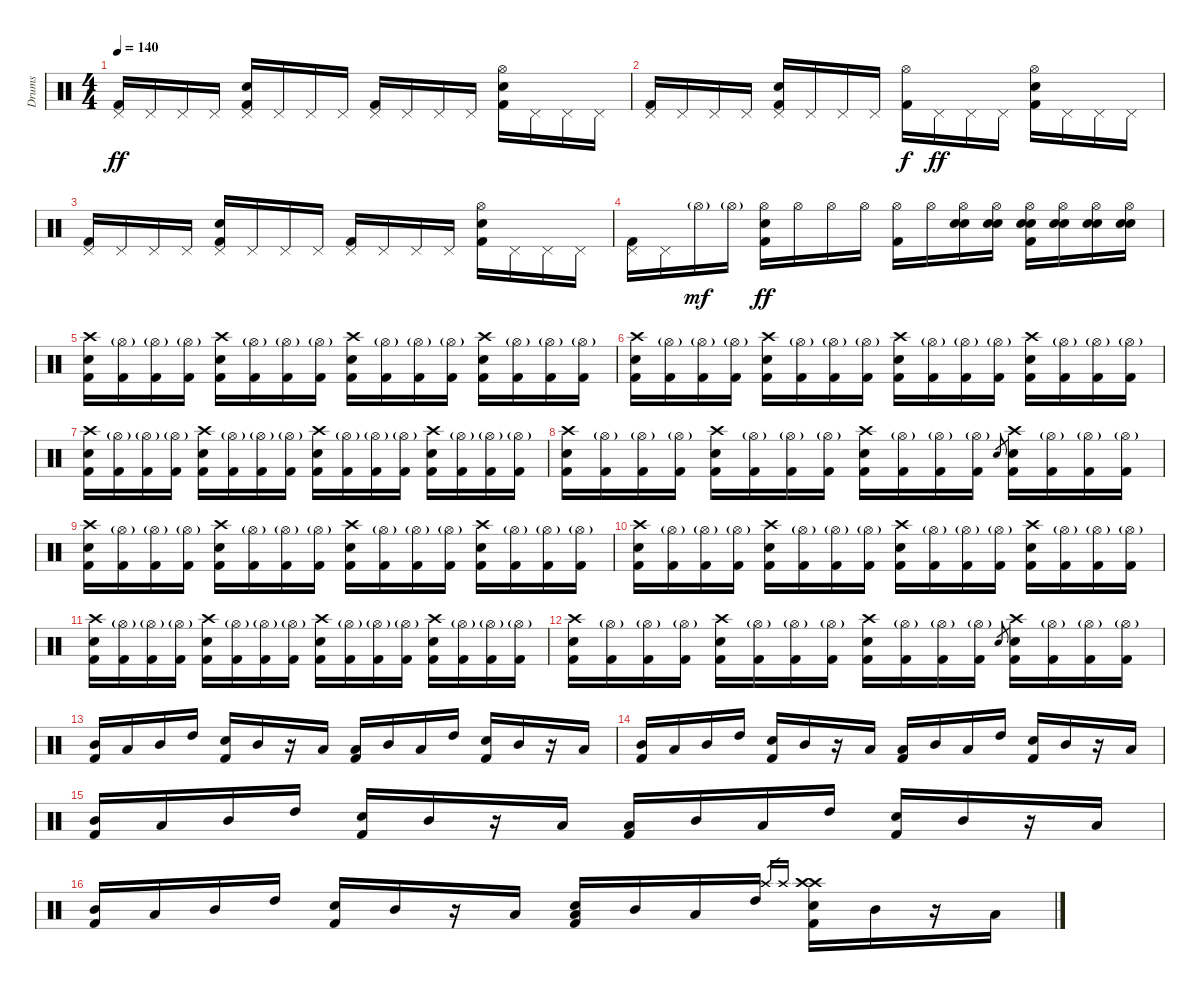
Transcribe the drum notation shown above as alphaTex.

\track ("Drums" "Drums") {instrument percussion}
\staff {score}
\articulation defaults
\ts (4 4)
\tempo 140
\clef neutral
\ks c
("Pedal Hi-Hat (hit)" "Kick (hit) 2").16{dy ff} "Pedal Hi-Hat (hit)".16 "Pedal Hi-Hat (hit)".16 "Pedal Hi-Hat (hit)".16 ("Pedal Hi-Hat (hit)" "Kick (hit) 2" "Electric Snare (hit)").16 "Pedal Hi-Hat (hit)".16 "Pedal Hi-Hat (hit)".16 "Pedal Hi-Hat (hit)".16 ("Pedal Hi-Hat (hit)" "Kick (hit) 2").16 "Pedal Hi-Hat (hit)".16 "Pedal Hi-Hat (hit)".16 "Pedal Hi-Hat (hit)".16 ("Hi-Hat (open)" "Kick (hit) 2" "Electric Snare (hit)").16 "Pedal Hi-Hat (hit)".16 "Pedal Hi-Hat (hit)".16 "Pedal Hi-Hat (hit)".16 |
("Pedal Hi-Hat (hit)" "Kick (hit) 2").16 "Pedal Hi-Hat (hit)".16 "Pedal Hi-Hat (hit)".16 "Pedal Hi-Hat (hit)".16 ("Pedal Hi-Hat (hit)" "Kick (hit) 2" "Electric Snare (hit)").16 "Pedal Hi-Hat (hit)".16 "Pedal Hi-Hat (hit)".16 "Pedal Hi-Hat (hit)".16 ("Hi-Hat (open)" "Kick (hit) 2").16{dy f} "Pedal Hi-Hat (hit)".16{dy ff} "Pedal Hi-Hat (hit)".16 "Pedal Hi-Hat (hit)".16 ("Hi-Hat (open)" "Kick (hit) 2" "Electric Snare (hit)").16 "Pedal Hi-Hat (hit)".16 "Pedal Hi-Hat (hit)".16 "Pedal Hi-Hat (hit)".16 |
("Pedal Hi-Hat (hit)" "Kick (hit) 2").16 "Pedal Hi-Hat (hit)".16 "Pedal Hi-Hat (hit)".16 "Pedal Hi-Hat (hit)".16 ("Pedal Hi-Hat (hit)" "Kick (hit) 2" "Electric Snare (hit)").16 "Pedal Hi-Hat (hit)".16 "Pedal Hi-Hat (hit)".16 "Pedal Hi-Hat (hit)".16 ("Pedal Hi-Hat (hit)" "Kick (hit) 2").16 "Pedal Hi-Hat (hit)".16 "Pedal Hi-Hat (hit)".16 "Pedal Hi-Hat (hit)".16 ("Hi-Hat (open)" "Kick (hit) 2" "Electric Snare (hit)").16 "Pedal Hi-Hat (hit)".16 "Pedal Hi-Hat (hit)".16 "Pedal Hi-Hat (hit)".16 |
("Pedal Hi-Hat (hit)" "Kick (hit) 2").16 "Pedal Hi-Hat (hit)".16 "Hi-Hat (open)"{g}.16{dy mf} "Hi-Hat (open)"{g}.16 ("Hi-Hat (open)" "Kick (hit) 2" "Electric Snare (hit)").16{dy ff} "Hi-Hat (open)".16 "Hi-Hat (open)".16 "Hi-Hat (open)".16 ("Hi-Hat (open)" "Kick (hit) 2").16 "Hi-Hat (open)".16 ("Hi-Hat (open)" "Electric Snare (hit)" "Electric Snare (hit)").16 ("Hi-Hat (open)" "Electric Snare (hit)" "Electric Snare (hit)").16 ("Hi-Hat (open)" "Kick (hit) 2" "Electric Snare (hit)" "Electric Snare (hit)").16 ("Hi-Hat (open)" "Electric Snare (hit)" "Electric Snare (hit)").16 ("Hi-Hat (open)" "Electric Snare (hit)" "Electric Snare (hit)").16 ("Hi-Hat (open)" "Electric Snare (hit)" "Electric Snare (hit)").16 |
("Crash high (hit)" "Kick (hit) 2" "Electric Snare (hit)").16 ("Hi-Hat (open)"{g} "Kick (hit) 2").16 ("Hi-Hat (open)"{g} "Kick (hit) 2").16 ("Hi-Hat (open)"{g} "Kick (hit) 2").16 ("Crash high (hit)" "Kick (hit) 2" "Electric Snare (hit)").16 ("Hi-Hat (open)"{g} "Kick (hit) 2").16 ("Hi-Hat (open)"{g} "Kick (hit) 2").16 ("Hi-Hat (open)"{g} "Kick (hit) 2").16 ("Crash high (hit)" "Kick (hit) 2" "Electric Snare (hit)").16 ("Hi-Hat (open)"{g} "Kick (hit) 2").16 ("Hi-Hat (open)"{g} "Kick (hit) 2").16 ("Hi-Hat (open)"{g} "Kick (hit) 2").16 ("Crash high (hit)" "Kick (hit) 2" "Electric Snare (hit)").16 ("Hi-Hat (open)"{g} "Kick (hit) 2").16 ("Hi-Hat (open)"{g} "Kick (hit) 2").16 ("Hi-Hat (open)"{g} "Kick (hit) 2").16 |
("Crash high (hit)" "Kick (hit) 2" "Electric Snare (hit)").16 ("Hi-Hat (open)"{g} "Kick (hit) 2").16 ("Hi-Hat (open)"{g} "Kick (hit) 2").16 ("Hi-Hat (open)"{g} "Kick (hit) 2").16 ("Crash high (hit)" "Kick (hit) 2" "Electric Snare (hit)").16 ("Hi-Hat (open)"{g} "Kick (hit) 2").16 ("Hi-Hat (open)"{g} "Kick (hit) 2").16 ("Hi-Hat (open)"{g} "Kick (hit) 2").16 ("Crash high (hit)" "Kick (hit) 2" "Electric Snare (hit)").16 ("Hi-Hat (open)"{g} "Kick (hit) 2").16 ("Hi-Hat (open)"{g} "Kick (hit) 2").16 ("Hi-Hat (open)"{g} "Kick (hit) 2").16 ("Crash high (hit)" "Kick (hit) 2" "Electric Snare (hit)").16 ("Hi-Hat (open)"{g} "Kick (hit) 2").16 ("Hi-Hat (open)"{g} "Kick (hit) 2").16 ("Hi-Hat (open)"{g} "Kick (hit) 2").16 |
("Crash high (hit)" "Kick (hit) 2" "Electric Snare (hit)").16 ("Hi-Hat (open)"{g} "Kick (hit) 2").16 ("Hi-Hat (open)"{g} "Kick (hit) 2").16 ("Hi-Hat (open)"{g} "Kick (hit) 2").16 ("Crash high (hit)" "Kick (hit) 2" "Electric Snare (hit)").16 ("Hi-Hat (open)"{g} "Kick (hit) 2").16 ("Hi-Hat (open)"{g} "Kick (hit) 2").16 ("Hi-Hat (open)"{g} "Kick (hit) 2").16 ("Crash high (hit)" "Kick (hit) 2" "Electric Snare (hit)").16 ("Hi-Hat (open)"{g} "Kick (hit) 2").16 ("Hi-Hat (open)"{g} "Kick (hit) 2").16 ("Hi-Hat (open)"{g} "Kick (hit) 2").16 ("Crash high (hit)" "Kick (hit) 2" "Electric Snare (hit)").16 ("Hi-Hat (open)"{g} "Kick (hit) 2").16 ("Hi-Hat (open)"{g} "Kick (hit) 2").16 ("Hi-Hat (open)"{g} "Kick (hit) 2").16 |
("Crash high (hit)" "Kick (hit) 2" "Electric Snare (hit)").16 ("Hi-Hat (open)"{g} "Kick (hit) 2").16 ("Hi-Hat (open)"{g} "Kick (hit) 2").16 ("Hi-Hat (open)"{g} "Kick (hit) 2").16 ("Crash high (hit)" "Kick (hit) 2" "Electric Snare (hit)").16 ("Hi-Hat (open)"{g} "Kick (hit) 2").16 ("Hi-Hat (open)"{g} "Kick (hit) 2").16 ("Hi-Hat (open)"{g} "Kick (hit) 2").16 ("Crash high (hit)" "Kick (hit) 2" "Electric Snare (hit)").16 ("Hi-Hat (open)"{g} "Kick (hit) 2").16 ("Hi-Hat (open)"{g} "Kick (hit) 2").16 ("Hi-Hat (open)"{g} "Kick (hit) 2").16 "Electric Snare (hit)".8{gr} ("Crash high (hit)" "Kick (hit) 2" "Electric Snare (hit)").16 ("Hi-Hat (open)"{g} "Kick (hit) 2").16 ("Hi-Hat (open)"{g} "Kick (hit) 2").16 ("Hi-Hat (open)"{g} "Kick (hit) 2").16 |
("Crash high (hit)" "Kick (hit) 2" "Electric Snare (hit)").16 ("Hi-Hat (open)"{g} "Kick (hit) 2").16 ("Hi-Hat (open)"{g} "Kick (hit) 2").16 ("Hi-Hat (open)"{g} "Kick (hit) 2").16 ("Crash high (hit)" "Kick (hit) 2" "Electric Snare (hit)").16 ("Hi-Hat (open)"{g} "Kick (hit) 2").16 ("Hi-Hat (open)"{g} "Kick (hit) 2").16 ("Hi-Hat (open)"{g} "Kick (hit) 2").16 ("Crash high (hit)" "Kick (hit) 2" "Electric Snare (hit)").16 ("Hi-Hat (open)"{g} "Kick (hit) 2").16 ("Hi-Hat (open)"{g} "Kick (hit) 2").16 ("Hi-Hat (open)"{g} "Kick (hit) 2").16 ("Crash high (hit)" "Kick (hit) 2" "Electric Snare (hit)").16 ("Hi-Hat (open)"{g} "Kick (hit) 2").16 ("Hi-Hat (open)"{g} "Kick (hit) 2").16 ("Hi-Hat (open)"{g} "Kick (hit) 2").16 |
("Crash high (hit)" "Kick (hit) 2" "Electric Snare (hit)").16 ("Hi-Hat (open)"{g} "Kick (hit) 2").16 ("Hi-Hat (open)"{g} "Kick (hit) 2").16 ("Hi-Hat (open)"{g} "Kick (hit) 2").16 ("Crash high (hit)" "Kick (hit) 2" "Electric Snare (hit)").16 ("Hi-Hat (open)"{g} "Kick (hit) 2").16 ("Hi-Hat (open)"{g} "Kick (hit) 2").16 ("Hi-Hat (open)"{g} "Kick (hit) 2").16 ("Crash high (hit)" "Kick (hit) 2" "Electric Snare (hit)").16 ("Hi-Hat (open)"{g} "Kick (hit) 2").16 ("Hi-Hat (open)"{g} "Kick (hit) 2").16 ("Hi-Hat (open)"{g} "Kick (hit) 2").16 ("Crash high (hit)" "Kick (hit) 2" "Electric Snare (hit)").16 ("Hi-Hat (open)"{g} "Kick (hit) 2").16 ("Hi-Hat (open)"{g} "Kick (hit) 2").16 ("Hi-Hat (open)"{g} "Kick (hit) 2").16 |
("Crash high (hit)" "Kick (hit) 2" "Electric Snare (hit)").16 ("Hi-Hat (open)"{g} "Kick (hit) 2").16 ("Hi-Hat (open)"{g} "Kick (hit) 2").16 ("Hi-Hat (open)"{g} "Kick (hit) 2").16 ("Crash high (hit)" "Kick (hit) 2" "Electric Snare (hit)").16 ("Hi-Hat (open)"{g} "Kick (hit) 2").16 ("Hi-Hat (open)"{g} "Kick (hit) 2").16 ("Hi-Hat (open)"{g} "Kick (hit) 2").16 ("Crash high (hit)" "Kick (hit) 2" "Electric Snare (hit)").16 ("Hi-Hat (open)"{g} "Kick (hit) 2").16 ("Hi-Hat (open)"{g} "Kick (hit) 2").16 ("Hi-Hat (open)"{g} "Kick (hit) 2").16 ("Crash high (hit)" "Kick (hit) 2" "Electric Snare (hit)").16 ("Hi-Hat (open)"{g} "Kick (hit) 2").16 ("Hi-Hat (open)"{g} "Kick (hit) 2").16 ("Hi-Hat (open)"{g} "Kick (hit) 2").16 |
("Crash high (hit)" "Kick (hit) 2" "Electric Snare (hit)").16 ("Hi-Hat (open)"{g} "Kick (hit) 2").16 ("Hi-Hat (open)"{g} "Kick (hit) 2").16 ("Hi-Hat (open)"{g} "Kick (hit) 2").16 ("Crash high (hit)" "Kick (hit) 2" "Electric Snare (hit)").16 ("Hi-Hat (open)"{g} "Kick (hit) 2").16 ("Hi-Hat (open)"{g} "Kick (hit) 2").16 ("Hi-Hat (open)"{g} "Kick (hit) 2").16 ("Crash high (hit)" "Kick (hit) 2" "Electric Snare (hit)").16 ("Hi-Hat (open)"{g} "Kick (hit) 2").16 ("Hi-Hat (open)"{g} "Kick (hit) 2").16 ("Hi-Hat (open)"{g} "Kick (hit) 2").16 "Electric Snare (hit)".8{gr} ("Crash high (hit)" "Kick (hit) 2" "Electric Snare (hit)").16 ("Hi-Hat (open)"{g} "Kick (hit) 2").16 ("Hi-Hat (open)"{g} "Kick (hit) 2").16 ("Hi-Hat (open)"{g} "Kick (hit) 2").16 |
("Mid Tom (hit)" "Kick (hit) 2").16 "Low Tom (hit)".16 "Mid Tom (hit)".16 "High Tom (hit)".16 ("Electric Snare (hit)" "Kick (hit) 2").16 "Mid Tom (hit)".16 r.16 "Low Tom (hit)".16 ("Low Tom (hit)" "Kick (hit) 2").16 "Mid Tom (hit)".16 "Low Tom (hit)".16 "High Tom (hit)".16 ("Electric Snare (hit)" "Kick (hit) 2").16 "Mid Tom (hit)".16 r.16 "Low Tom (hit)".16 |
("Mid Tom (hit)" "Kick (hit) 2").16 "Low Tom (hit)".16 "Mid Tom (hit)".16 "High Tom (hit)".16 ("Electric Snare (hit)" "Kick (hit) 2").16 "Mid Tom (hit)".16 r.16 "Low Tom (hit)".16 ("Low Tom (hit)" "Kick (hit) 2").16 "Mid Tom (hit)".16 "Low Tom (hit)".16 "High Tom (hit)".16 ("Electric Snare (hit)" "Kick (hit) 2").16 "Mid Tom (hit)".16 r.16 "Low Tom (hit)".16 |
("Mid Tom (hit)" "Kick (hit) 2").16 "Low Tom (hit)".16 "Mid Tom (hit)".16 "High Tom (hit)".16 ("Electric Snare (hit)" "Kick (hit) 2").16 "Mid Tom (hit)".16 r.16 "Low Tom (hit)".16 ("Low Tom (hit)" "Kick (hit) 2").16 "Mid Tom (hit)".16 "Low Tom (hit)".16 "High Tom (hit)".16 ("Electric Snare (hit)" "Kick (hit) 2").16 "Mid Tom (hit)".16 r.16 "Low Tom (hit)".16 |
("Mid Tom (hit)" "Kick (hit) 2").16 "Low Tom (hit)".16 "Mid Tom (hit)".16 "High Tom (hit)".16 ("Electric Snare (hit)" "Kick (hit) 2").16 "Mid Tom (hit)".16 r.16 "Low Tom (hit)".16 ("Low Tom (hit)" "Electric Snare (hit)" "Kick (hit) 2").16 "Mid Tom (hit)".16 "Low Tom (hit)".16 "High Tom (hit)".16 "Crash high (hit)".16{gr} "Crash high (hit)".16{gr} ("Crash high (hit)" "Electric Snare (hit)" "Kick (hit) 2" "Crash high (hit)").16 "Mid Tom (hit)".16 r.16 "Low Tom (hit)".16
